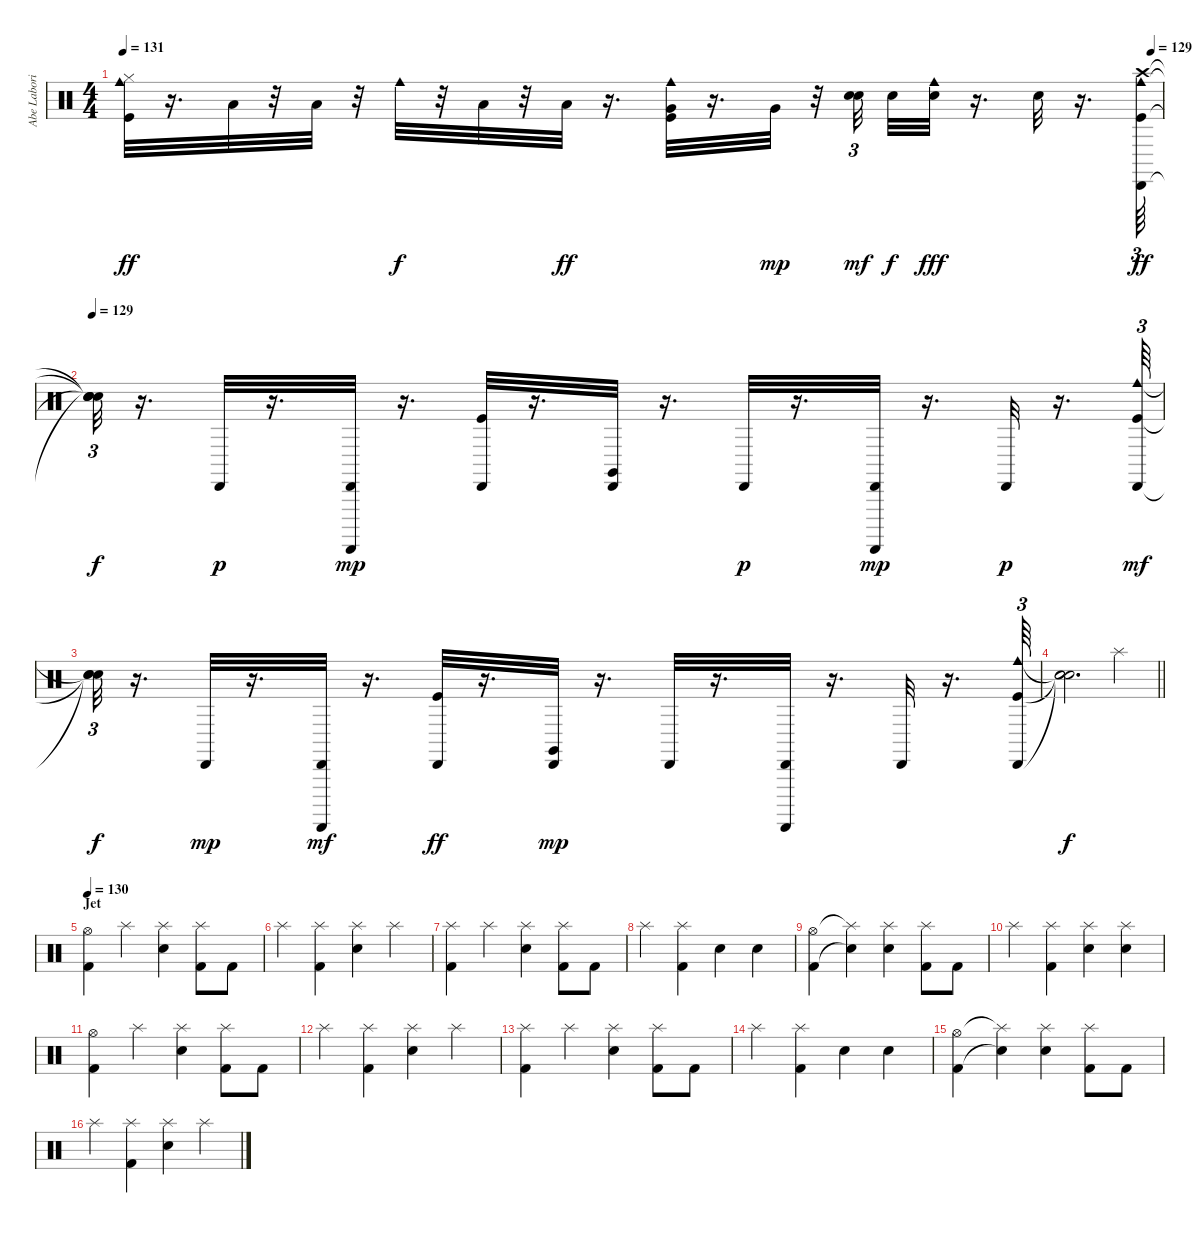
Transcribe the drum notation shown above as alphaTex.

\track ("Abe Laboriel, Jr." "Abe Labori") {instrument percussion}
\staff {score}
\articulation defaults
\ts (4 4)
\tempo 131
\tempo (129 0.9895833333333334)
\clef neutral
\ks c
("Cowbell medium (hit)" "Kick (hit)" "Hi-Hat (closed)").32{dy ff} r.16{d} "Low Tom (hit)".32 r.32 "Low Tom (hit)".32 r.32 "Cowbell medium (hit)".32{dy f} r.32 "Low Tom (hit)".32 r.32 "Low Tom (hit)".32{dy ff} r.16{d} ("Very Low Tom (hit)" "Kick (hit)" "Cowbell medium (hit)").32 r.16{d} "Very Low Tom (hit)".32{dy mp} r.32 ("Snare (hit) 2" "Snare (hit) 2").32{tu (3 2) dy mf beam splitsecondary} "Snare (hit) 2".32{dy f} ("Snare (hit) 2" "Cowbell medium (hit)").32{dy fff} r.16{d} "Snare (hit) 2".32 r.16{d} ("Cowbell medium (hit)" "Cabasa (hit)" "Crash high (hit)" "Kick (hit)").64{tu (3 2) dy ff} |
\tempo 129
("Snare (hit)"{t} "Snare (hit)"{t} "Snare (hit)"{t} "Snare (hit)"{t}).32{tu (3 2) dy f} r.16{d} "Cabasa (hit)".32{dy p} r.16{d} ("Guiro (scrap-return)" "Cabasa (hit)").32{dy mp} r.16{d} ("Kick (hit)" "Cabasa (hit)").32 r.16{d} ("Cabasa (hit)" "Claves (hit)").32 r.16{d} "Cabasa (hit)".32{dy p} r.16{d} ("Cabasa (hit)" "Guiro (scrap-return)").32{dy mp} r.16{d} "Cabasa (hit)".32{dy p} r.16{d} ("Cabasa (hit)" "Kick (hit)" "Cowbell medium (hit)").64{tu (3 2) dy mf} |
("Snare (hit)"{t} "Snare (hit)"{t} "Snare (hit)"{t}).32{tu (3 2) dy f} r.16{d} "Cabasa (hit)".32{dy mp} r.16{d} ("Guiro (scrap-return)" "Cabasa (hit)").32{dy mf} r.16{d} ("Cabasa (hit)" "Kick (hit)").32{dy ff} r.16{d} ("Claves (hit)" "Cabasa (hit)").32{dy mp} r.16{d} "Cabasa (hit)".32 r.16{d} ("Cabasa (hit)" "Guiro (scrap-return)").32 r.16{d} "Cabasa (hit)".32 r.16{d} ("Cowbell medium (hit)" "Kick (hit)" "Cabasa (hit)").64{tu (3 2)} |
\barLineRight lightlight
("Snare (hit)"{t} "Snare (hit)"{t} "Snare (hit)"{t}).2{d dy f} "Splash (hit)".4 |
\section ("" "Jet")
\tempo 130
("Hi-Hat (open)" "Kick (hit) 2").4 "Splash (hit)".4 ("Splash (hit)" "Snare (hit) 2").4 ("Splash (hit)" "Kick (hit) 2").8 "Kick (hit) 2".8 |
"Splash (hit)".4 ("Splash (hit)" "Kick (hit) 2").4 ("Splash (hit)" "Snare (hit) 2").4 "Splash (hit)".4 |
("Splash (hit)" "Kick (hit) 2").4 "Splash (hit)".4 ("Splash (hit)" "Snare (hit) 2").4 ("Splash (hit)" "Kick (hit) 2").8 "Kick (hit) 2".8 |
"Splash (hit)".4 ("Splash (hit)" "Kick (hit) 2").4 "Snare (hit) 2".4 "Snare (hit) 2".4 |
("Hi-Hat (open)" "Kick (hit) 2").4 ("Splash (hit)"{t} "Snare (hit)"{t}).4 ("Splash (hit)" "Snare (hit) 2").4 ("Splash (hit)" "Kick (hit) 2").8 "Kick (hit) 2".8 |
"Splash (hit)".4 ("Splash (hit)" "Kick (hit) 2").4 ("Splash (hit)" "Snare (hit) 2").4 ("Splash (hit)" "Snare (hit) 2").4 |
("Hi-Hat (open)" "Kick (hit) 2").4 "Splash (hit)".4 ("Splash (hit)" "Snare (hit) 2").4 ("Splash (hit)" "Kick (hit) 2").8 "Kick (hit) 2".8 |
"Splash (hit)".4 ("Splash (hit)" "Kick (hit) 2").4 ("Splash (hit)" "Snare (hit) 2").4 "Splash (hit)".4 |
("Splash (hit)" "Kick (hit) 2").4 "Splash (hit)".4 ("Splash (hit)" "Snare (hit) 2").4 ("Splash (hit)" "Kick (hit) 2").8 "Kick (hit) 2".8 |
"Splash (hit)".4 ("Splash (hit)" "Kick (hit) 2").4 "Snare (hit) 2".4 "Snare (hit) 2".4 |
("Hi-Hat (open)" "Kick (hit) 2").4 ("Splash (hit)"{t} "Snare (hit)"{t}).4 ("Splash (hit)" "Snare (hit) 2").4 ("Splash (hit)" "Kick (hit) 2").8 "Kick (hit) 2".8 |
"Splash (hit)".4 ("Splash (hit)" "Kick (hit) 2").4 ("Splash (hit)" "Snare (hit) 2").4 "Splash (hit)".4
